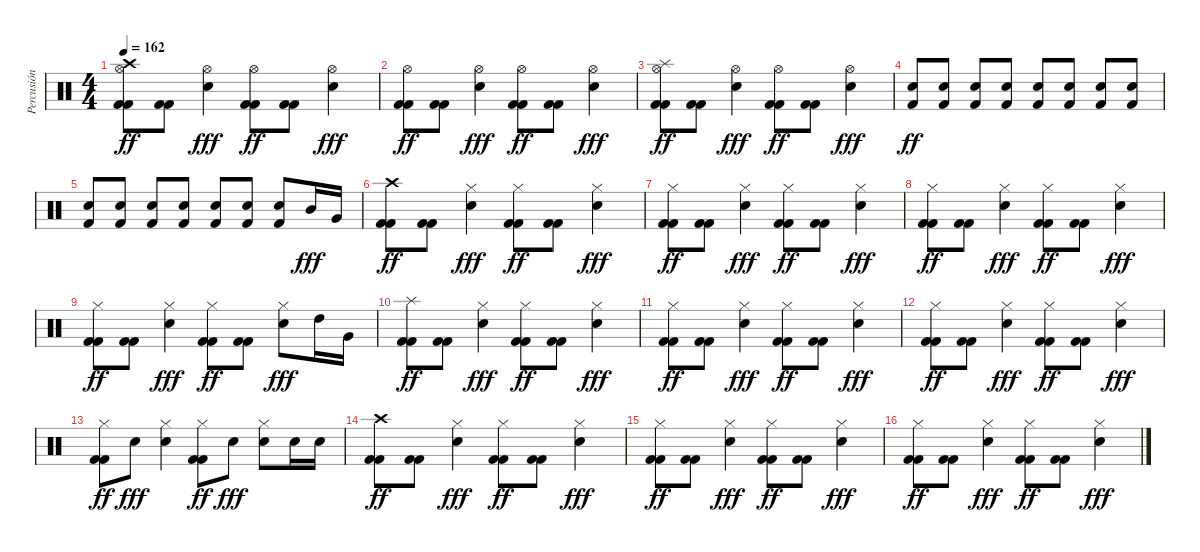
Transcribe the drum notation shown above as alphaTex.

\track ("Percusión" "Percusión") {instrument percussion}
\staff {score}
\articulation defaults
\ts (4 4)
\tempo 162
\clef neutral
\ks c
("Crash high (hit)" "Hi-Hat (open)" "Kick (hit) 2" "Kick (hit) 2").8{dy ff} ("Kick (hit) 2" "Kick (hit) 2").8 ("Hi-Hat (open)" "Snare (hit) 2").4{dy fff} ("Hi-Hat (open)" "Kick (hit) 2" "Kick (hit) 2").8{dy ff} ("Kick (hit) 2" "Kick (hit) 2").8 ("Hi-Hat (open)" "Snare (hit) 2").4{dy fff} |
("Hi-Hat (open)" "Kick (hit) 2" "Kick (hit) 2").8{dy ff} ("Kick (hit) 2" "Kick (hit) 2").8 ("Hi-Hat (open)" "Snare (hit) 2").4{dy fff} ("Hi-Hat (open)" "Kick (hit) 2" "Kick (hit) 2").8{dy ff} ("Kick (hit) 2" "Kick (hit) 2").8 ("Hi-Hat (open)" "Snare (hit) 2").4{dy fff} |
("Splash (hit)" "Hi-Hat (open)" "Kick (hit) 2" "Kick (hit) 2").8{dy ff} ("Kick (hit) 2" "Kick (hit) 2").8 ("Hi-Hat (open)" "Snare (hit) 2").4{dy fff} ("Hi-Hat (open)" "Kick (hit) 2" "Kick (hit) 2").8{dy ff} ("Kick (hit) 2" "Kick (hit) 2").8 ("Hi-Hat (open)" "Snare (hit) 2").4{dy fff} |
("Snare (hit) 2" "Kick (hit) 2").8{dy ff} ("Snare (hit) 2" "Kick (hit) 2").8 ("Snare (hit) 2" "Kick (hit) 2").8 ("Snare (hit) 2" "Kick (hit) 2").8 ("Snare (hit) 2" "Kick (hit) 2").8 ("Snare (hit) 2" "Kick (hit) 2").8 ("Snare (hit) 2" "Kick (hit) 2").8 ("Snare (hit) 2" "Kick (hit) 2").8 |
("Snare (hit) 2" "Kick (hit) 2").8 ("Snare (hit) 2" "Kick (hit) 2").8 ("Snare (hit) 2" "Kick (hit) 2").8 ("Snare (hit) 2" "Kick (hit) 2").8 ("Snare (hit) 2" "Kick (hit) 2").8 ("Snare (hit) 2" "Kick (hit) 2").8 ("Snare (hit) 2" "Kick (hit) 2").8 "Mid Tom (hit)".16{dy fff} "Very Low Tom (hit)".16 |
("Crash high (hit)" "Kick (hit) 2" "Kick (hit) 2").8{dy ff} ("Kick (hit) 2" "Kick (hit) 2").8 ("Hi-Hat (closed)" "Snare (hit) 2").4{dy fff} ("Hi-Hat (closed)" "Kick (hit) 2" "Kick (hit) 2").8{dy ff} ("Kick (hit) 2" "Kick (hit) 2").8 ("Hi-Hat (closed)" "Snare (hit) 2").4{dy fff} |
("Hi-Hat (closed)" "Kick (hit) 2" "Kick (hit) 2").8{dy ff} ("Kick (hit) 2" "Kick (hit) 2").8 ("Hi-Hat (closed)" "Snare (hit) 2").4{dy fff} ("Hi-Hat (closed)" "Kick (hit) 2" "Kick (hit) 2").8{dy ff} ("Kick (hit) 2" "Kick (hit) 2").8 ("Hi-Hat (closed)" "Snare (hit) 2").4{dy fff} |
("Hi-Hat (closed)" "Kick (hit) 2" "Kick (hit) 2").8{dy ff} ("Kick (hit) 2" "Kick (hit) 2").8 ("Hi-Hat (closed)" "Snare (hit) 2").4{dy fff} ("Hi-Hat (closed)" "Kick (hit) 2" "Kick (hit) 2").8{dy ff} ("Kick (hit) 2" "Kick (hit) 2").8 ("Hi-Hat (closed)" "Snare (hit) 2").4{dy fff} |
("Hi-Hat (closed)" "Kick (hit) 2" "Kick (hit) 2").8{dy ff} ("Kick (hit) 2" "Kick (hit) 2").8 ("Hi-Hat (closed)" "Snare (hit) 2").4{dy fff} ("Hi-Hat (closed)" "Kick (hit) 2" "Kick (hit) 2").8{dy ff} ("Kick (hit) 2" "Kick (hit) 2").8 ("Hi-Hat (closed)" "Snare (hit) 2").8{dy fff} "High Tom (hit)".16 "Very Low Tom (hit)".16 |
("Splash (hit)" "Kick (hit) 2" "Kick (hit) 2").8{dy ff} ("Kick (hit) 2" "Kick (hit) 2").8 ("Hi-Hat (closed)" "Snare (hit) 2").4{dy fff} ("Hi-Hat (closed)" "Kick (hit) 2" "Kick (hit) 2").8{dy ff} ("Kick (hit) 2" "Kick (hit) 2").8 ("Hi-Hat (closed)" "Snare (hit) 2").4{dy fff} |
("Hi-Hat (closed)" "Kick (hit) 2" "Kick (hit) 2").8{dy ff} ("Kick (hit) 2" "Kick (hit) 2").8 ("Hi-Hat (closed)" "Snare (hit) 2").4{dy fff} ("Hi-Hat (closed)" "Kick (hit) 2" "Kick (hit) 2").8{dy ff} ("Kick (hit) 2" "Kick (hit) 2").8 ("Hi-Hat (closed)" "Snare (hit) 2").4{dy fff} |
("Hi-Hat (closed)" "Kick (hit) 2" "Kick (hit) 2").8{dy ff} ("Kick (hit) 2" "Kick (hit) 2").8 ("Hi-Hat (closed)" "Snare (hit) 2").4{dy fff} ("Hi-Hat (closed)" "Kick (hit) 2" "Kick (hit) 2").8{dy ff} ("Kick (hit) 2" "Kick (hit) 2").8 ("Hi-Hat (closed)" "Snare (hit) 2").4{dy fff} |
("Hi-Hat (closed)" "Kick (hit) 2" "Kick (hit) 2").8{dy ff} "Snare (hit) 2".8{dy fff} ("Hi-Hat (closed)" "Snare (hit) 2").4 ("Hi-Hat (closed)" "Kick (hit) 2" "Kick (hit) 2").8{dy ff} "Snare (hit) 2".8{dy fff} ("Hi-Hat (closed)" "Snare (hit) 2").8 "Snare (hit) 2".16 "Snare (hit) 2".16 |
("Crash high (hit)" "Kick (hit) 2" "Kick (hit) 2").8{dy ff} ("Kick (hit) 2" "Kick (hit) 2").8 ("Hi-Hat (closed)" "Snare (hit) 2").4{dy fff} ("Hi-Hat (closed)" "Kick (hit) 2" "Kick (hit) 2").8{dy ff} ("Kick (hit) 2" "Kick (hit) 2").8 ("Hi-Hat (closed)" "Snare (hit) 2").4{dy fff} |
("Hi-Hat (closed)" "Kick (hit) 2" "Kick (hit) 2").8{dy ff} ("Kick (hit) 2" "Kick (hit) 2").8 ("Hi-Hat (closed)" "Snare (hit) 2").4{dy fff} ("Hi-Hat (closed)" "Kick (hit) 2" "Kick (hit) 2").8{dy ff} ("Kick (hit) 2" "Kick (hit) 2").8 ("Hi-Hat (closed)" "Snare (hit) 2").4{dy fff} |
("Hi-Hat (closed)" "Kick (hit) 2" "Kick (hit) 2").8{dy ff} ("Kick (hit) 2" "Kick (hit) 2").8 ("Hi-Hat (closed)" "Snare (hit) 2").4{dy fff} ("Hi-Hat (closed)" "Kick (hit) 2" "Kick (hit) 2").8{dy ff} ("Kick (hit) 2" "Kick (hit) 2").8 ("Hi-Hat (closed)" "Snare (hit) 2").4{dy fff}
